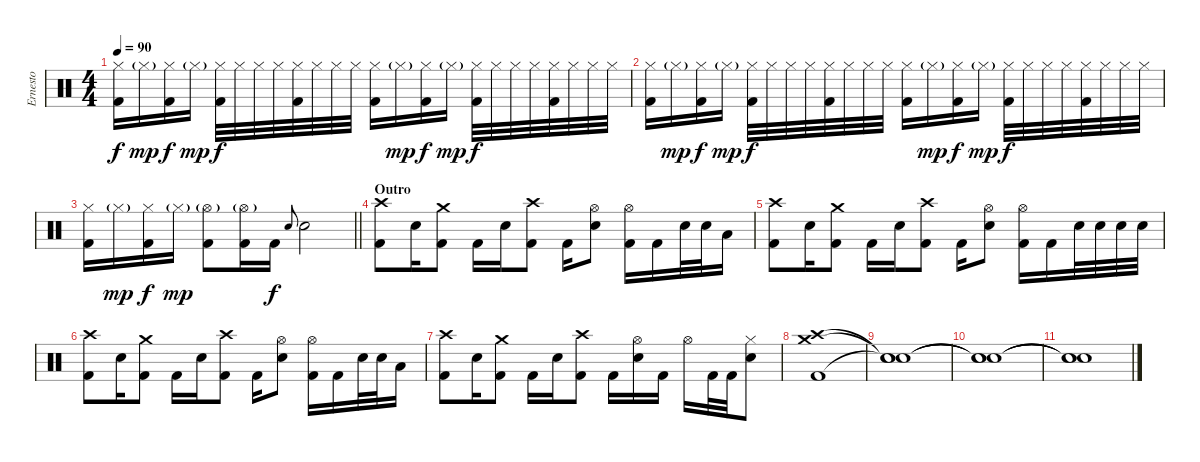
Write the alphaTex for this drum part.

\track ("Ernesto" "Ernesto") {instrument percussion}
\staff
\articulation defaults
\ts (4 4)
\tempo 90
\clef neutral
\ks c
("Hi-Hat (closed)" "Kick (hit) 2").16{dy f} "Hi-Hat (closed)"{g}.16{dy mp} ("Hi-Hat (closed)" "Kick (hit) 2").16{dy f} "Hi-Hat (closed)"{g}.16{dy mp} ("Hi-Hat (closed)" "Kick (hit) 2").32{dy f} "Hi-Hat (closed)".32 "Hi-Hat (closed)".32 "Hi-Hat (closed)".32 ("Hi-Hat (closed)" "Kick (hit) 2").32 "Hi-Hat (closed)".32 "Hi-Hat (closed)".32 "Hi-Hat (closed)".32 ("Hi-Hat (closed)" "Kick (hit) 2").16 "Hi-Hat (closed)"{g}.16{dy mp} ("Hi-Hat (closed)" "Kick (hit) 2").16{dy f} "Hi-Hat (closed)"{g}.16{dy mp} ("Hi-Hat (closed)" "Kick (hit) 2").32{dy f} "Hi-Hat (closed)".32 "Hi-Hat (closed)".32 "Hi-Hat (closed)".32 ("Hi-Hat (closed)" "Kick (hit) 2").32 "Hi-Hat (closed)".32 "Hi-Hat (closed)".32 "Hi-Hat (closed)".32 |
("Hi-Hat (closed)" "Kick (hit) 2").16 "Hi-Hat (closed)"{g}.16{dy mp} ("Hi-Hat (closed)" "Kick (hit) 2").16{dy f} "Hi-Hat (closed)"{g}.16{dy mp} ("Hi-Hat (closed)" "Kick (hit) 2").32{dy f} "Hi-Hat (closed)".32 "Hi-Hat (closed)".32 "Hi-Hat (closed)".32 ("Hi-Hat (closed)" "Kick (hit) 2").32 "Hi-Hat (closed)".32 "Hi-Hat (closed)".32 "Hi-Hat (closed)".32 ("Hi-Hat (closed)" "Kick (hit) 2").16 "Hi-Hat (closed)"{g}.16{dy mp} ("Hi-Hat (closed)" "Kick (hit) 2").16{dy f} "Hi-Hat (closed)"{g}.16{dy mp} ("Hi-Hat (closed)" "Kick (hit) 2").32{dy f} "Hi-Hat (closed)".32 "Hi-Hat (closed)".32 "Hi-Hat (closed)".32 ("Hi-Hat (closed)" "Kick (hit) 2").32 "Hi-Hat (closed)".32 "Hi-Hat (closed)".32 "Hi-Hat (closed)".32 |
\barLineRight lightlight
("Hi-Hat (closed)" "Kick (hit) 2").16 "Hi-Hat (closed)"{g}.16{dy mp} ("Hi-Hat (closed)" "Kick (hit) 2").16{dy f} "Hi-Hat (closed)"{g}.16{dy mp} ("Hi-Hat (open)"{g} "Kick (hit) 2").8 ("Hi-Hat (open)"{g} "Kick (hit) 2").16 "Kick (hit) 2".16{dy f} "Electric Snare (hit)".8{gr onbeat} "Electric Snare (hit)".2 |
\section ("" "Outro")
("Crash high (hit)" "Kick (hit) 2").8 "Electric Snare (hit)".16 ("Crash medium (hit)" "Kick (hit) 2").8 "Kick (hit) 2".16 "Electric Snare (hit)".16 ("Crash high (hit)" "Kick (hit) 2").8 "Kick (hit) 2".16 ("Hi-Hat (open)" "Electric Snare (hit)").8 ("Hi-Hat (open)" "Kick (hit) 2").16 "Kick (hit) 2".16 "Electric Snare (hit)".32 "Electric Snare (hit)".32 "Low Tom (hit)".16 |
("Crash high (hit)" "Kick (hit) 2").8 "Electric Snare (hit)".16 ("Crash medium (hit)" "Kick (hit) 2").8 "Kick (hit) 2".16 "Electric Snare (hit)".16 ("Crash high (hit)" "Kick (hit) 2").8 "Kick (hit) 2".16 ("Hi-Hat (open)" "Electric Snare (hit)").8 ("Hi-Hat (open)" "Kick (hit) 2").16 "Kick (hit) 2".16 "Electric Snare (hit)".32 "Electric Snare (hit)".32 "Electric Snare (hit)".32 "Electric Snare (hit)".32 |
("Crash high (hit)" "Kick (hit) 2").8 "Electric Snare (hit)".16 ("Crash medium (hit)" "Kick (hit) 2").8 "Kick (hit) 2".16 "Electric Snare (hit)".16 ("Crash high (hit)" "Kick (hit) 2").8 "Kick (hit) 2".16 ("Hi-Hat (open)" "Electric Snare (hit)").8 ("Hi-Hat (open)" "Kick (hit) 2").16 "Kick (hit) 2".16 "Electric Snare (hit)".32 "Electric Snare (hit)".32 "Low Tom (hit)".16 |
("Crash high (hit)" "Kick (hit) 2").8 "Electric Snare (hit)".16 ("Crash medium (hit)" "Kick (hit) 2").8 "Kick (hit) 2".16 "Electric Snare (hit)".16 ("Crash high (hit)" "Kick (hit) 2").8 "Kick (hit) 2".16 ("Hi-Hat (open)" "Electric Snare (hit)").16 "Kick (hit) 2".16 "Hi-Hat (open)".16 "Kick (hit) 2".32 "Kick (hit) 2".32 ("Hi-Hat (closed)" "Electric Snare (hit)").8 |
("Crash medium (hit)" "Crash high (hit)" "Kick (hit) 2").1 |
("Snare (hit)"{t} "Snare (hit)"{t} "Snare (hit)"{t}).1 |
("Snare (hit)"{t} "Snare (hit)"{t} "Snare (hit)"{t}).1 |
("Snare (hit)"{t} "Snare (hit)"{t} "Snare (hit)"{t}).1
